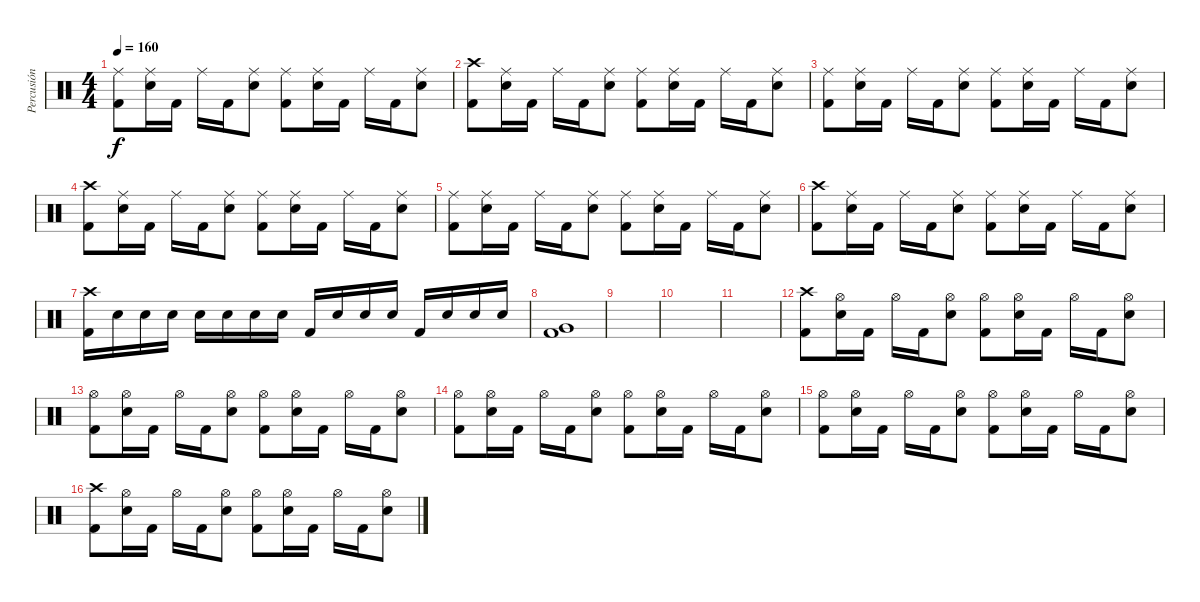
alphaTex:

\track ("Percusión" "Percusión") {instrument percussion}
\staff {score}
\articulation defaults
\ts (4 4)
\tempo 160
\clef neutral
\ks c
("Ride (middle)" "Kick (hit) 2").8{dy f} ("Ride (middle)" "Electric Snare (hit)").16 "Kick (hit) 2".16 "Ride (middle)".16 "Kick (hit) 2".16 ("Ride (middle)" "Electric Snare (hit)").8 ("Ride (middle)" "Kick (hit) 2").8 ("Ride (middle)" "Electric Snare (hit)").16 "Kick (hit) 2".16 "Ride (middle)".16 "Kick (hit) 2".16 ("Ride (middle)" "Electric Snare (hit)").8 |
("Crash high (hit)" "Kick (hit) 2").8 ("Ride (middle)" "Electric Snare (hit)").16 "Kick (hit) 2".16 "Ride (middle)".16 "Kick (hit) 2".16 ("Ride (middle)" "Electric Snare (hit)").8 ("Ride (middle)" "Kick (hit) 2").8 ("Ride (middle)" "Electric Snare (hit)").16 "Kick (hit) 2".16 "Ride (middle)".16 "Kick (hit) 2".16 ("Ride (middle)" "Electric Snare (hit)").8 |
("Ride (middle)" "Kick (hit) 2").8 ("Ride (middle)" "Electric Snare (hit)").16 "Kick (hit) 2".16 "Ride (middle)".16 "Kick (hit) 2".16 ("Ride (middle)" "Electric Snare (hit)").8 ("Ride (middle)" "Kick (hit) 2").8 ("Ride (middle)" "Electric Snare (hit)").16 "Kick (hit) 2".16 "Ride (middle)".16 "Kick (hit) 2".16 ("Ride (middle)" "Electric Snare (hit)").8 |
("Crash high (hit)" "Kick (hit) 2").8 ("Ride (middle)" "Electric Snare (hit)").16 "Kick (hit) 2".16 "Ride (middle)".16 "Kick (hit) 2".16 ("Ride (middle)" "Electric Snare (hit)").8 ("Ride (middle)" "Kick (hit) 2").8 ("Ride (middle)" "Electric Snare (hit)").16 "Kick (hit) 2".16 "Ride (middle)".16 "Kick (hit) 2".16 ("Ride (middle)" "Electric Snare (hit)").8 |
("Ride (middle)" "Kick (hit) 2").8 ("Ride (middle)" "Electric Snare (hit)").16 "Kick (hit) 2".16 "Ride (middle)".16 "Kick (hit) 2".16 ("Ride (middle)" "Electric Snare (hit)").8 ("Ride (middle)" "Kick (hit) 2").8 ("Ride (middle)" "Electric Snare (hit)").16 "Kick (hit) 2".16 "Ride (middle)".16 "Kick (hit) 2".16 ("Ride (middle)" "Electric Snare (hit)").8 |
("Crash high (hit)" "Kick (hit) 2").8 ("Ride (middle)" "Electric Snare (hit)").16 "Kick (hit) 2".16 "Ride (middle)".16 "Kick (hit) 2".16 ("Ride (middle)" "Electric Snare (hit)").8 ("Ride (middle)" "Kick (hit) 2").8 ("Ride (middle)" "Electric Snare (hit)").16 "Kick (hit) 2".16 "Ride (middle)".16 "Kick (hit) 2".16 ("Ride (middle)" "Electric Snare (hit)").8 |
("Crash high (hit)" "Kick (hit) 2").16 "Electric Snare (hit)".16 "Electric Snare (hit)".16 "Electric Snare (hit)".16 "Electric Snare (hit)".16 "Electric Snare (hit)".16 "Electric Snare (hit)".16 "Electric Snare (hit)".16 "Kick (hit) 2".16 "Electric Snare (hit)".16 "Electric Snare (hit)".16 "Electric Snare (hit)".16 "Kick (hit) 2".16 "Electric Snare (hit)".16 "Electric Snare (hit)".16 "Electric Snare (hit)".16 |
("Very Low Tom (hit)" "Kick (hit) 2").1 |
|
|
|
("Crash high (hit)" "Kick (hit) 2").8 ("Hi-Hat (open)" "Electric Snare (hit)").16 "Kick (hit) 2".16 "Hi-Hat (open)".16 "Kick (hit) 2".16 ("Hi-Hat (open)" "Electric Snare (hit)").8 ("Hi-Hat (open)" "Kick (hit) 2").8 ("Hi-Hat (open)" "Electric Snare (hit)").16 "Kick (hit) 2".16 "Hi-Hat (open)".16 "Kick (hit) 2".16 ("Hi-Hat (open)" "Electric Snare (hit)").8 |
("Hi-Hat (open)" "Kick (hit) 2").8 ("Hi-Hat (open)" "Electric Snare (hit)").16 "Kick (hit) 2".16 "Hi-Hat (open)".16 "Kick (hit) 2".16 ("Hi-Hat (open)" "Electric Snare (hit)").8 ("Hi-Hat (open)" "Kick (hit) 2").8 ("Hi-Hat (open)" "Electric Snare (hit)").16 "Kick (hit) 2".16 "Hi-Hat (open)".16 "Kick (hit) 2".16 ("Hi-Hat (open)" "Electric Snare (hit)").8 |
("Hi-Hat (open)" "Kick (hit) 2").8 ("Hi-Hat (open)" "Electric Snare (hit)").16 "Kick (hit) 2".16 "Hi-Hat (open)".16 "Kick (hit) 2".16 ("Hi-Hat (open)" "Electric Snare (hit)").8 ("Hi-Hat (open)" "Kick (hit) 2").8 ("Hi-Hat (open)" "Electric Snare (hit)").16 "Kick (hit) 2".16 "Hi-Hat (open)".16 "Kick (hit) 2".16 ("Hi-Hat (open)" "Electric Snare (hit)").8 |
("Hi-Hat (open)" "Kick (hit) 2").8 ("Hi-Hat (open)" "Electric Snare (hit)").16 "Kick (hit) 2".16 "Hi-Hat (open)".16 "Kick (hit) 2".16 ("Hi-Hat (open)" "Electric Snare (hit)").8 ("Hi-Hat (open)" "Kick (hit) 2").8 ("Hi-Hat (open)" "Electric Snare (hit)").16 "Kick (hit) 2".16 "Hi-Hat (open)".16 "Kick (hit) 2".16 ("Hi-Hat (open)" "Electric Snare (hit)").8 |
("Crash high (hit)" "Kick (hit) 2").8 ("Hi-Hat (open)" "Electric Snare (hit)").16 "Kick (hit) 2".16 "Hi-Hat (open)".16 "Kick (hit) 2".16 ("Hi-Hat (open)" "Electric Snare (hit)").8 ("Hi-Hat (open)" "Kick (hit) 2").8 ("Hi-Hat (open)" "Electric Snare (hit)").16 "Kick (hit) 2".16 "Hi-Hat (open)".16 "Kick (hit) 2".16 ("Hi-Hat (open)" "Electric Snare (hit)").8
